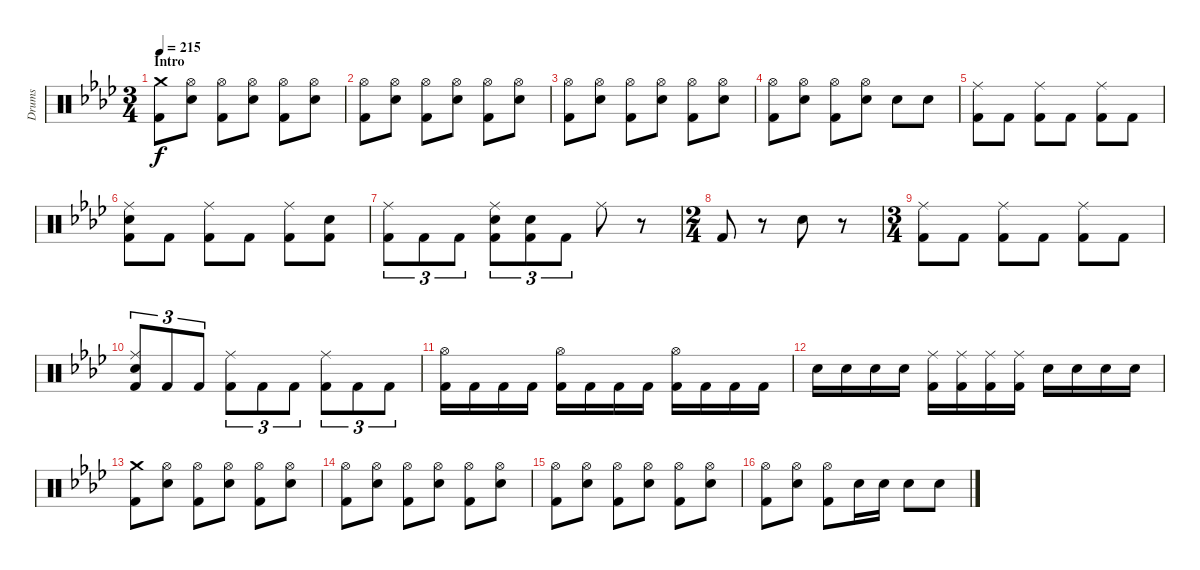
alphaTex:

\bracketExtendMode groupsimilarinstruments
\otherSystemsTrackNameOrientation horizontal
\track ("Guyot Begin-Benoit" "Drums") {instrument percussion}
\staff {score}
\articulation defaults
\ts (3 4)
\beaming (8 2 2 2 2)
\section ("" "Intro")
\tempo 215
\clef neutral
\ks ab
("Crash medium (hit)"{acc forcenatural} "Kick (hit) 2"{acc forcenatural}).8{dy f beam Down} ("Hi-Hat (open)"{acc forcenatural} "Snare (hit) 2"{acc forcenatural}).8{beam Down} ("Hi-Hat (open)"{acc forcenatural} "Kick (hit) 2"{acc forcenatural}).8{beam Down} ("Hi-Hat (open)"{acc forcenatural} "Snare (hit) 2"{acc forcenatural}).8{beam Down} ("Hi-Hat (open)"{acc forcenatural} "Kick (hit) 2"{acc forcenatural}).8{beam Down} ("Hi-Hat (open)"{acc forcenatural} "Snare (hit) 2"{acc forcenatural}).8{beam Down} |
("Hi-Hat (open)"{acc forcenatural} "Kick (hit) 2"{acc forcenatural}).8{beam Down} ("Hi-Hat (open)"{acc forcenatural} "Snare (hit) 2"{acc forcenatural}).8{beam Down} ("Hi-Hat (open)"{acc forcenatural} "Kick (hit) 2"{acc forcenatural}).8{beam Down} ("Hi-Hat (open)"{acc forcenatural} "Snare (hit) 2"{acc forcenatural}).8{beam Down} ("Hi-Hat (open)"{acc forcenatural} "Kick (hit) 2"{acc forcenatural}).8{beam Down} ("Hi-Hat (open)"{acc forcenatural} "Snare (hit) 2"{acc forcenatural}).8{beam Down} |
("Hi-Hat (open)"{acc forcenatural} "Kick (hit) 2"{acc forcenatural}).8{beam Down} ("Hi-Hat (open)"{acc forcenatural} "Snare (hit) 2"{acc forcenatural}).8{beam Down} ("Hi-Hat (open)"{acc forcenatural} "Kick (hit) 2"{acc forcenatural}).8{beam Down} ("Hi-Hat (open)"{acc forcenatural} "Snare (hit) 2"{acc forcenatural}).8{beam Down} ("Hi-Hat (open)"{acc forcenatural} "Kick (hit) 2"{acc forcenatural}).8{beam Down} ("Hi-Hat (open)"{acc forcenatural} "Snare (hit) 2"{acc forcenatural}).8{beam Down} |
("Hi-Hat (open)"{acc forcenatural} "Kick (hit) 2"{acc forcenatural}).8{beam Down} ("Hi-Hat (open)"{acc forcenatural} "Snare (hit) 2"{acc forcenatural}).8{beam Down} ("Hi-Hat (open)"{acc forcenatural} "Kick (hit) 2"{acc forcenatural}).8{beam Down} ("Hi-Hat (open)"{acc forcenatural} "Snare (hit) 2"{acc forcenatural}).8{beam Down} "Snare (hit) 2"{acc forcenatural}.8{beam Down} "Snare (hit) 2"{acc forcenatural}.8{beam Down} |
("Ride (middle)"{acc forcenatural} "Kick (hit) 2"{acc forcenatural}).8{beam Down} "Kick (hit) 2"{acc forcenatural}.8{beam Down} ("Ride (middle)"{acc forcenatural} "Kick (hit) 2"{acc forcenatural}).8{beam Down} "Kick (hit) 2"{acc forcenatural}.8{beam Down} ("Ride (middle)"{acc forcenatural} "Kick (hit) 2"{acc forcenatural}).8{beam Down} "Kick (hit) 2"{acc forcenatural}.8{beam Down} |
("Ride (middle)"{acc forcenatural} "Snare (hit) 2"{acc forcenatural} "Kick (hit) 2"{acc forcenatural}).8{beam Down} "Kick (hit) 2"{acc forcenatural}.8{beam Down} ("Ride (middle)"{acc forcenatural} "Kick (hit) 2"{acc forcenatural}).8{beam Down} "Kick (hit) 2"{acc forcenatural}.8{beam Down} ("Ride (middle)"{acc forcenatural} "Kick (hit) 2"{acc forcenatural}).8{beam Down} ("Snare (hit) 2"{acc forcenatural} "Kick (hit) 2"{acc forcenatural}).8{beam Down} |
("Ride (middle)"{acc forcenatural} "Kick (hit) 2"{acc forcenatural}).8{tu (3 2) beam Down} "Kick (hit) 2"{acc forcenatural}.8{tu (3 2) beam Down} "Kick (hit) 2"{acc forcenatural}.8{tu (3 2) beam Down} ("Ride (middle)"{acc forcenatural} "Snare (hit) 2"{acc forcenatural} "Kick (hit) 2"{acc forcenatural}).8{tu (3 2) beam Down} ("Snare (hit) 2"{acc forcenatural} "Kick (hit) 2"{acc forcenatural}).8{tu (3 2) beam Down} "Kick (hit) 2"{acc forcenatural}.8{tu (3 2) beam Down} "Ride (middle)"{acc forcenatural}.8{beam Down} r.8{beam Down} |
\ts (2 4)
\beaming (8 2 2 2 2)
"Kick (hit) 2"{acc forcenatural}.8{beam Up} r.8{beam Up} "Snare (hit) 2"{acc forcenatural}.8{beam Down} r.8{beam Down} |
\ts (3 4)
\beaming (8 2 2 2 2)
("Ride (middle)"{acc forcenatural} "Kick (hit) 2"{acc forcenatural}).8{beam Down} "Kick (hit) 2"{acc forcenatural}.8{beam Down} ("Ride (middle)"{acc forcenatural} "Kick (hit) 2"{acc forcenatural}).8{beam Down} "Kick (hit) 2"{acc forcenatural}.8{beam Down} ("Ride (middle)"{acc forcenatural} "Kick (hit) 2"{acc forcenatural}).8{beam Down} "Kick (hit) 2"{acc forcenatural}.8{beam Down} |
("Ride (middle)"{acc forcenatural} "Snare (hit) 2"{acc forcenatural} "Kick (hit) 2"{acc forcenatural}).8{tu (3 2) beam Up} "Kick (hit) 2"{acc forcenatural}.8{tu (3 2) beam Up} "Kick (hit) 2"{acc forcenatural}.8{tu (3 2) beam Up} ("Ride (middle)"{acc forcenatural} "Kick (hit) 2"{acc forcenatural}).8{tu (3 2) beam Down} "Kick (hit) 2"{acc forcenatural}.8{tu (3 2) beam Down} "Kick (hit) 2"{acc forcenatural}.8{tu (3 2) beam Down} ("Ride (middle)"{acc forcenatural} "Kick (hit) 2"{acc forcenatural}).8{tu (3 2) beam Down} "Kick (hit) 2"{acc forcenatural}.8{tu (3 2) beam Down} "Kick (hit) 2"{acc forcenatural}.8{tu (3 2) beam Down} |
("Hi-Hat (open)"{acc forcenatural} "Kick (hit) 2"{acc forcenatural}).16{beam Down} "Kick (hit) 2"{acc forcenatural}.16{beam Down} "Kick (hit) 2"{acc forcenatural}.16{beam Down} "Kick (hit) 2"{acc forcenatural}.16{beam Down} ("Hi-Hat (open)"{acc forcenatural} "Kick (hit) 2"{acc forcenatural}).16{beam Down} "Kick (hit) 2"{acc forcenatural}.16{beam Down} "Kick (hit) 2"{acc forcenatural}.16{beam Down} "Kick (hit) 2"{acc forcenatural}.16{beam Down} ("Hi-Hat (open)"{acc forcenatural} "Kick (hit) 2"{acc forcenatural}).16{beam Down} "Kick (hit) 2"{acc forcenatural}.16{beam Down} "Kick (hit) 2"{acc forcenatural}.16{beam Down} "Kick (hit) 2"{acc forcenatural}.16{beam Down} |
"Snare (hit) 2"{acc forcenatural}.16{beam Down} "Snare (hit) 2"{acc forcenatural}.16{beam Down} "Snare (hit) 2"{acc forcenatural}.16{beam Down} "Snare (hit) 2"{acc forcenatural}.16{beam Down} ("Ride (middle)"{acc forcenatural} "Kick (hit) 2"{acc forcenatural}).16{beam Down} ("Ride (middle)"{acc forcenatural} "Kick (hit) 2"{acc forcenatural}).16{beam Down} ("Ride (middle)"{acc forcenatural} "Kick (hit) 2"{acc forcenatural}).16{beam Down} ("Ride (middle)"{acc forcenatural} "Kick (hit) 2"{acc forcenatural}).16{beam Down} "Snare (hit) 2"{acc forcenatural}.16{beam Down} "Snare (hit) 2"{acc forcenatural}.16{beam Down} "Snare (hit) 2"{acc forcenatural}.16{beam Down} "Snare (hit) 2"{acc forcenatural}.16{beam Down} |
("Crash medium (hit)"{acc forcenatural} "Kick (hit) 2"{acc forcenatural}).8{beam Down} ("Hi-Hat (open)"{acc forcenatural} "Snare (hit) 2"{acc forcenatural}).8{beam Down} ("Hi-Hat (open)"{acc forcenatural} "Kick (hit) 2"{acc forcenatural}).8{beam Down} ("Hi-Hat (open)"{acc forcenatural} "Snare (hit) 2"{acc forcenatural}).8{beam Down} ("Hi-Hat (open)"{acc forcenatural} "Kick (hit) 2"{acc forcenatural}).8{beam Down} ("Hi-Hat (open)"{acc forcenatural} "Snare (hit) 2"{acc forcenatural}).8{beam Down} |
("Hi-Hat (open)"{acc forcenatural} "Kick (hit) 2"{acc forcenatural}).8{beam Down} ("Hi-Hat (open)"{acc forcenatural} "Snare (hit) 2"{acc forcenatural}).8{beam Down} ("Hi-Hat (open)"{acc forcenatural} "Kick (hit) 2"{acc forcenatural}).8{beam Down} ("Hi-Hat (open)"{acc forcenatural} "Snare (hit) 2"{acc forcenatural}).8{beam Down} ("Hi-Hat (open)"{acc forcenatural} "Kick (hit) 2"{acc forcenatural}).8{beam Down} ("Hi-Hat (open)"{acc forcenatural} "Snare (hit) 2"{acc forcenatural}).8{beam Down} |
("Hi-Hat (open)"{acc forcenatural} "Kick (hit) 2"{acc forcenatural}).8{beam Down} ("Hi-Hat (open)"{acc forcenatural} "Snare (hit) 2"{acc forcenatural}).8{beam Down} ("Hi-Hat (open)"{acc forcenatural} "Kick (hit) 2"{acc forcenatural}).8{beam Down} ("Hi-Hat (open)"{acc forcenatural} "Snare (hit) 2"{acc forcenatural}).8{beam Down} ("Hi-Hat (open)"{acc forcenatural} "Kick (hit) 2"{acc forcenatural}).8{beam Down} ("Hi-Hat (open)"{acc forcenatural} "Snare (hit) 2"{acc forcenatural}).8{beam Down} |
("Hi-Hat (open)"{acc forcenatural} "Kick (hit) 2"{acc forcenatural}).8{beam Down} ("Hi-Hat (open)"{acc forcenatural} "Snare (hit) 2"{acc forcenatural}).8{beam Down} ("Hi-Hat (open)"{acc forcenatural} "Kick (hit) 2"{acc forcenatural}).8{beam Down} "Snare (hit) 2"{acc forcenatural}.16{beam Down} "Snare (hit) 2"{acc forcenatural}.16{beam Down} "Snare (hit) 2"{acc forcenatural}.8{beam Down} "Snare (hit) 2"{acc forcenatural}.8{beam Down}
